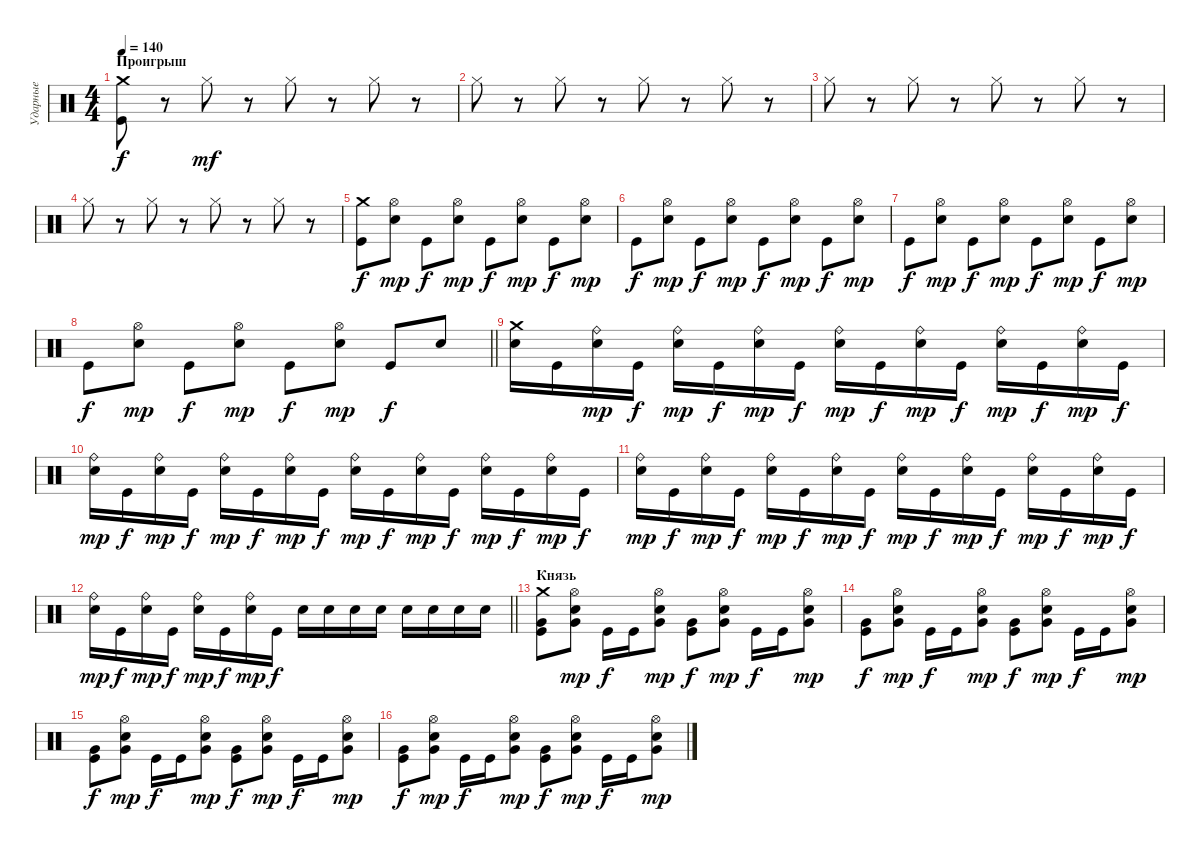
\track ("Ударные" "Ударные") {instrument percussion}
\staff {score}
\articulation defaults
\ts (4 4)
\section ("" "Проигрыш")
\tempo 140
\clef neutral
\ks c
("Crash medium (hit)" "Kick (hit)").8{dy f} r.8 "Hi-Hat (closed)".8{dy mf} r.8 "Hi-Hat (closed)".8 r.8 "Hi-Hat (closed)".8 r.8 |
"Hi-Hat (closed)".8 r.8 "Hi-Hat (closed)".8 r.8 "Hi-Hat (closed)".8 r.8 "Hi-Hat (closed)".8 r.8 |
"Hi-Hat (closed)".8 r.8 "Hi-Hat (closed)".8 r.8 "Hi-Hat (closed)".8 r.8 "Hi-Hat (closed)".8 r.8 |
"Hi-Hat (closed)".8 r.8 "Hi-Hat (closed)".8 r.8 "Hi-Hat (closed)".8 r.8 "Hi-Hat (closed)".8 r.8 |
("Crash medium (hit)" "Kick (hit)").8{dy f} ("Hi-Hat (open)" "Electric Snare (hit)").8{dy mp} "Kick (hit)".8{dy f} ("Hi-Hat (open)" "Electric Snare (hit)").8{dy mp} "Kick (hit)".8{dy f} ("Hi-Hat (open)" "Electric Snare (hit)").8{dy mp} "Kick (hit)".8{dy f} ("Hi-Hat (open)" "Electric Snare (hit)").8{dy mp} |
"Kick (hit)".8{dy f} ("Hi-Hat (open)" "Electric Snare (hit)").8{dy mp} "Kick (hit)".8{dy f} ("Hi-Hat (open)" "Electric Snare (hit)").8{dy mp} "Kick (hit)".8{dy f} ("Hi-Hat (open)" "Electric Snare (hit)").8{dy mp} "Kick (hit)".8{dy f} ("Hi-Hat (open)" "Electric Snare (hit)").8{dy mp} |
"Kick (hit)".8{dy f} ("Hi-Hat (open)" "Electric Snare (hit)").8{dy mp} "Kick (hit)".8{dy f} ("Hi-Hat (open)" "Electric Snare (hit)").8{dy mp} "Kick (hit)".8{dy f} ("Hi-Hat (open)" "Electric Snare (hit)").8{dy mp} "Kick (hit)".8{dy f} ("Hi-Hat (open)" "Electric Snare (hit)").8{dy mp} |
\barLineRight lightlight "Kick (hit)".8{dy f}
("Hi-Hat (open)" "Electric Snare (hit)").8{dy mp} "Kick (hit)".8{dy f} ("Hi-Hat (open)" "Electric Snare (hit)").8{dy mp} "Kick (hit)".8{dy f} ("Hi-Hat (open)" "Electric Snare (hit)").8{dy mp} "Kick (hit)".8{dy f} "Electric Snare (hit)".8 |
("Crash medium (hit)" "Electric Snare (hit)").16 "Kick (hit)".16 ("Ride (bell)" "Electric Snare (hit)").16{dy mp} "Kick (hit)".16{dy f} ("Ride (bell)" "Electric Snare (hit)").16{dy mp} "Kick (hit)".16{dy f} ("Ride (bell)" "Electric Snare (hit)").16{dy mp} "Kick (hit)".16{dy f} ("Ride (bell)" "Electric Snare (hit)").16{dy mp} "Kick (hit)".16{dy f} ("Ride (bell)" "Electric Snare (hit)").16{dy mp} "Kick (hit)".16{dy f} ("Ride (bell)" "Electric Snare (hit)").16{dy mp} "Kick (hit)".16{dy f} ("Ride (bell)" "Electric Snare (hit)").16{dy mp} "Kick (hit)".16{dy f} |
("Ride (bell)" "Electric Snare (hit)").16{dy mp} "Kick (hit)".16{dy f} ("Ride (bell)" "Electric Snare (hit)").16{dy mp} "Kick (hit)".16{dy f} ("Ride (bell)" "Electric Snare (hit)").16{dy mp} "Kick (hit)".16{dy f} ("Ride (bell)" "Electric Snare (hit)").16{dy mp} "Kick (hit)".16{dy f} ("Ride (bell)" "Electric Snare (hit)").16{dy mp} "Kick (hit)".16{dy f} ("Ride (bell)" "Electric Snare (hit)").16{dy mp} "Kick (hit)".16{dy f} ("Ride (bell)" "Electric Snare (hit)").16{dy mp} "Kick (hit)".16{dy f} ("Ride (bell)" "Electric Snare (hit)").16{dy mp} "Kick (hit)".16{dy f} |
("Ride (bell)" "Electric Snare (hit)").16{dy mp} "Kick (hit)".16{dy f} ("Ride (bell)" "Electric Snare (hit)").16{dy mp} "Kick (hit)".16{dy f} ("Ride (bell)" "Electric Snare (hit)").16{dy mp} "Kick (hit)".16{dy f} ("Ride (bell)" "Electric Snare (hit)").16{dy mp} "Kick (hit)".16{dy f} ("Ride (bell)" "Electric Snare (hit)").16{dy mp} "Kick (hit)".16{dy f} ("Ride (bell)" "Electric Snare (hit)").16{dy mp} "Kick (hit)".16{dy f} ("Ride (bell)" "Electric Snare (hit)").16{dy mp} "Kick (hit)".16{dy f} ("Ride (bell)" "Electric Snare (hit)").16{dy mp} "Kick (hit)".16{dy f} |
\barLineRight lightlight
("Ride (bell)" "Electric Snare (hit)").16{dy mp} "Kick (hit)".16{dy f} ("Ride (bell)" "Electric Snare (hit)").16{dy mp} "Kick (hit)".16{dy f} ("Ride (bell)" "Electric Snare (hit)").16{dy mp} "Kick (hit)".16{dy f} ("Ride (bell)" "Electric Snare (hit)").16{dy mp} "Kick (hit)".16{dy f} "Electric Snare (hit)".16 "Electric Snare (hit)".16 "Electric Snare (hit)".16 "Electric Snare (hit)".16 "Electric Snare (hit)".16 "Electric Snare (hit)".16 "Electric Snare (hit)".16 "Electric Snare (hit)".16 |
\section ("" "Князь")
("Crash medium (hit)" "Kick (hit)" "Very Low Tom (hit)").8 ("Hi-Hat (open)" "Electric Snare (hit)" "Very Low Tom (hit)").8{dy mp} "Kick (hit)".16{dy f} "Kick (hit)".16 ("Hi-Hat (open)" "Electric Snare (hit)" "Very Low Tom (hit)").8{dy mp} ("Kick (hit)" "Very Low Tom (hit)").8{dy f} ("Hi-Hat (open)" "Electric Snare (hit)" "Very Low Tom (hit)").8{dy mp} "Kick (hit)".16{dy f} "Kick (hit)".16 ("Hi-Hat (open)" "Electric Snare (hit)" "Very Low Tom (hit)").8{dy mp} |
("Kick (hit)" "Very Low Tom (hit)").8{dy f} ("Hi-Hat (open)" "Electric Snare (hit)" "Very Low Tom (hit)").8{dy mp} "Kick (hit)".16{dy f} "Kick (hit)".16 ("Hi-Hat (open)" "Electric Snare (hit)" "Very Low Tom (hit)").8{dy mp} ("Kick (hit)" "Very Low Tom (hit)").8{dy f} ("Hi-Hat (open)" "Electric Snare (hit)" "Very Low Tom (hit)").8{dy mp} "Kick (hit)".16{dy f} "Kick (hit)".16 ("Hi-Hat (open)" "Electric Snare (hit)" "Very Low Tom (hit)").8{dy mp} |
("Kick (hit)" "Very Low Tom (hit)").8{dy f} ("Hi-Hat (open)" "Electric Snare (hit)" "Very Low Tom (hit)").8{dy mp} "Kick (hit)".16{dy f} "Kick (hit)".16 ("Hi-Hat (open)" "Electric Snare (hit)" "Very Low Tom (hit)").8{dy mp} ("Kick (hit)" "Very Low Tom (hit)").8{dy f} ("Hi-Hat (open)" "Electric Snare (hit)" "Very Low Tom (hit)").8{dy mp} "Kick (hit)".16{dy f} "Kick (hit)".16 ("Hi-Hat (open)" "Electric Snare (hit)" "Very Low Tom (hit)").8{dy mp} |
("Kick (hit)" "Very Low Tom (hit)").8{dy f} ("Hi-Hat (open)" "Electric Snare (hit)" "Very Low Tom (hit)").8{dy mp} "Kick (hit)".16{dy f} "Kick (hit)".16 ("Hi-Hat (open)" "Electric Snare (hit)" "Very Low Tom (hit)").8{dy mp} ("Kick (hit)" "Very Low Tom (hit)").8{dy f} ("Hi-Hat (open)" "Electric Snare (hit)" "Very Low Tom (hit)").8{dy mp} "Kick (hit)".16{dy f} "Kick (hit)".16 ("Hi-Hat (open)" "Electric Snare (hit)" "Very Low Tom (hit)").8{dy mp}
